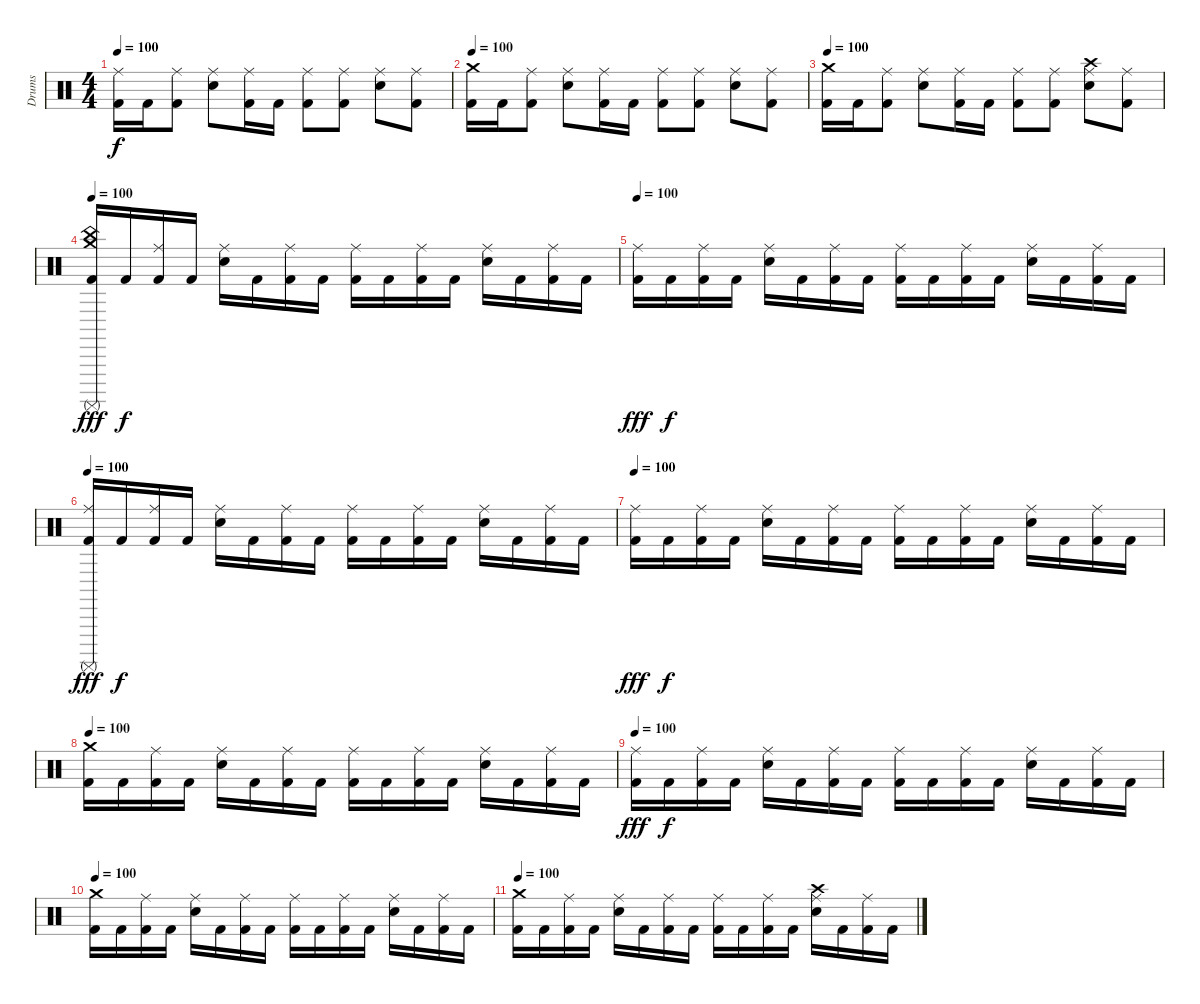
\track ("Drums" "Drums") {instrument percussion}
\staff {score}
\articulation defaults
\ts (4 4)
\tempo 100
\clef neutral
\ks c
("Ride (middle)" "Kick (hit) 2").16{dy f volume 6} "Kick (hit) 2".16 ("Ride (middle)" "Kick (hit) 2").8 ("Ride (middle)" "Electric Snare (hit)").8 ("Ride (middle)" "Kick (hit) 2").16 "Kick (hit) 2".16 ("Ride (middle)" "Kick (hit) 2").8 ("Ride (middle)" "Kick (hit) 2").8 ("Ride (middle)" "Electric Snare (hit)").8 ("Ride (middle)" "Kick (hit) 2").8 |
\tempo 100
("Crash medium (hit)" "Kick (hit) 2").16 "Kick (hit) 2".16 ("Ride (middle)" "Kick (hit) 2").8 ("Ride (middle)" "Electric Snare (hit)").8 ("Ride (middle)" "Kick (hit) 2").16 "Kick (hit) 2".16 ("Ride (middle)" "Kick (hit) 2").8 ("Ride (middle)" "Kick (hit) 2").8 ("Ride (middle)" "Electric Snare (hit)").8 ("Ride (middle)" "Kick (hit) 2").8 |
\tempo 100
("Crash medium (hit)" "Kick (hit) 2").16 "Kick (hit) 2".16 ("Ride (middle)" "Kick (hit) 2").8 ("Ride (middle)" "Electric Snare (hit)").8 ("Ride (middle)" "Kick (hit) 2").16 "Kick (hit) 2".16 ("Ride (middle)" "Kick (hit) 2").8 ("Ride (middle)" "Kick (hit) 2").8 ("Crash high (hit)" "Ride (middle)" "Electric Snare (hit)").8 ("Ride (middle)" "Kick (hit) 2").8 |
\tempo 100
("Crash medium (hit)" "China (hit)" "Surdo (mute)" "Kick (hit) 2").16{dy fff volume 3} "Kick (hit) 2".16{dy f} ("Ride (middle)" "Kick (hit) 2").16 "Kick (hit) 2".16 ("Ride (middle)" "Electric Snare (hit)").16 "Kick (hit) 2".16 ("Ride (middle)" "Kick (hit) 2").16 "Kick (hit) 2".16 ("Ride (middle)" "Kick (hit) 2").16 "Kick (hit) 2".16 ("Ride (middle)" "Kick (hit) 2").16 "Kick (hit) 2".16 ("Ride (middle)" "Electric Snare (hit)").16 "Kick (hit) 2".16 ("Ride (middle)" "Kick (hit) 2").16 "Kick (hit) 2".16 |
\tempo 100
("Ride (middle)" "Kick (hit) 2").16{dy fff} "Kick (hit) 2".16{dy f} ("Ride (middle)" "Kick (hit) 2").16 "Kick (hit) 2".16 ("Ride (middle)" "Electric Snare (hit)").16 "Kick (hit) 2".16 ("Ride (middle)" "Kick (hit) 2").16 "Kick (hit) 2".16 ("Ride (middle)" "Kick (hit) 2").16 "Kick (hit) 2".16 ("Ride (middle)" "Kick (hit) 2").16 "Kick (hit) 2".16 ("Ride (middle)" "Electric Snare (hit)").16 "Kick (hit) 2".16 ("Ride (middle)" "Kick (hit) 2").16 "Kick (hit) 2".16 |
\tempo 100
("Surdo (mute)" "Ride (middle)" "Kick (hit) 2").16{dy fff} "Kick (hit) 2".16{dy f} ("Ride (middle)" "Kick (hit) 2").16 "Kick (hit) 2".16 ("Ride (middle)" "Electric Snare (hit)").16 "Kick (hit) 2".16 ("Ride (middle)" "Kick (hit) 2").16 "Kick (hit) 2".16 ("Ride (middle)" "Kick (hit) 2").16 "Kick (hit) 2".16 ("Ride (middle)" "Kick (hit) 2").16 "Kick (hit) 2".16 ("Ride (middle)" "Electric Snare (hit)").16 "Kick (hit) 2".16 ("Ride (middle)" "Kick (hit) 2").16 "Kick (hit) 2".16 |
\tempo 100
("Ride (middle)" "Kick (hit) 2").16{dy fff} "Kick (hit) 2".16{dy f} ("Ride (middle)" "Kick (hit) 2").16 "Kick (hit) 2".16 ("Ride (middle)" "Electric Snare (hit)").16 "Kick (hit) 2".16 ("Ride (middle)" "Kick (hit) 2").16 "Kick (hit) 2".16 ("Ride (middle)" "Kick (hit) 2").16{volume 0} "Kick (hit) 2".16 ("Ride (middle)" "Kick (hit) 2").16 "Kick (hit) 2".16 ("Ride (middle)" "Electric Snare (hit)").16 "Kick (hit) 2".16 ("Ride (middle)" "Kick (hit) 2").16 "Kick (hit) 2".16 |
\tempo 100
("Crash medium (hit)" "Kick (hit) 2").16 "Kick (hit) 2".16 ("Ride (middle)" "Kick (hit) 2").16 "Kick (hit) 2".16 ("Ride (middle)" "Electric Snare (hit)").16 "Kick (hit) 2".16 ("Ride (middle)" "Kick (hit) 2").16 "Kick (hit) 2".16 ("Ride (middle)" "Kick (hit) 2").16 "Kick (hit) 2".16 ("Ride (middle)" "Kick (hit) 2").16 "Kick (hit) 2".16 ("Ride (middle)" "Electric Snare (hit)").16 "Kick (hit) 2".16 ("Ride (middle)" "Kick (hit) 2").16 "Kick (hit) 2".16 |
\tempo 100
("Ride (middle)" "Kick (hit) 2").16{dy fff} "Kick (hit) 2".16{dy f} ("Ride (middle)" "Kick (hit) 2").16 "Kick (hit) 2".16 ("Ride (middle)" "Electric Snare (hit)").16 "Kick (hit) 2".16 ("Ride (middle)" "Kick (hit) 2").16 "Kick (hit) 2".16 ("Ride (middle)" "Kick (hit) 2").16 "Kick (hit) 2".16 ("Ride (middle)" "Kick (hit) 2").16 "Kick (hit) 2".16 ("Ride (middle)" "Electric Snare (hit)").16 "Kick (hit) 2".16 ("Ride (middle)" "Kick (hit) 2").16 "Kick (hit) 2".16 |
\tempo 100
("Crash medium (hit)" "Kick (hit) 2").16 "Kick (hit) 2".16 ("Ride (middle)" "Kick (hit) 2").16 "Kick (hit) 2".16 ("Ride (middle)" "Electric Snare (hit)").16 "Kick (hit) 2".16 ("Ride (middle)" "Kick (hit) 2").16 "Kick (hit) 2".16 ("Ride (middle)" "Kick (hit) 2").16 "Kick (hit) 2".16 ("Ride (middle)" "Kick (hit) 2").16 "Kick (hit) 2".16 ("Ride (middle)" "Electric Snare (hit)").16 "Kick (hit) 2".16 ("Ride (middle)" "Kick (hit) 2").16 "Kick (hit) 2".16 |
\tempo 100
("Crash medium (hit)" "Kick (hit) 2").16 "Kick (hit) 2".16 ("Ride (middle)" "Kick (hit) 2").16 "Kick (hit) 2".16 ("Ride (middle)" "Electric Snare (hit)").16 "Kick (hit) 2".16 ("Ride (middle)" "Kick (hit) 2").16 "Kick (hit) 2".16 ("Ride (middle)" "Kick (hit) 2").16 "Kick (hit) 2".16 ("Ride (middle)" "Kick (hit) 2").16 "Kick (hit) 2".16 ("Crash high (hit)" "Ride (middle)" "Electric Snare (hit)").16 "Kick (hit) 2".16 ("Ride (middle)" "Kick (hit) 2").16 "Kick (hit) 2".16
